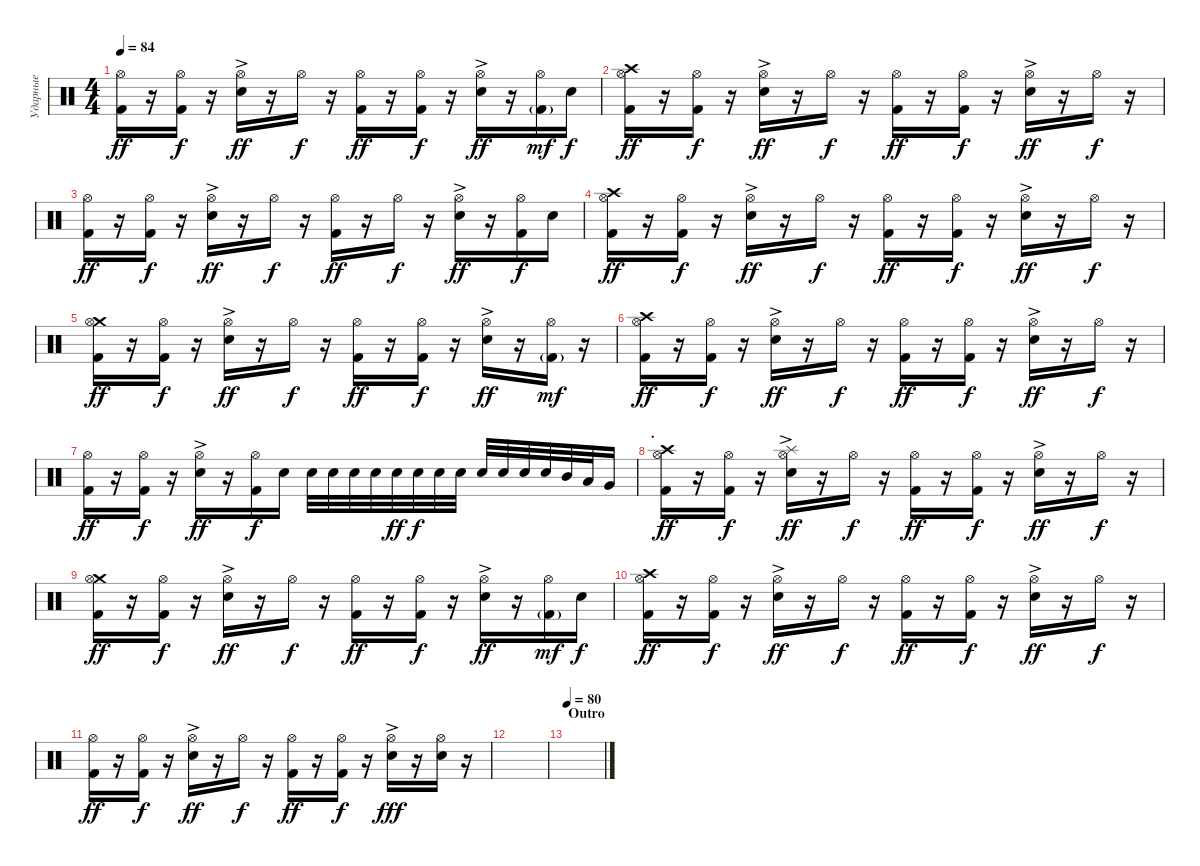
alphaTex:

\track ("Ударные" "Ударные") {instrument percussion}
\staff {score}
\articulation defaults
\ts (4 4)
\tempo 84
\clef neutral
\ks c
("Hi-Hat (open)" "Kick (hit) 2").16{dy ff} r.16 ("Hi-Hat (open)" "Kick (hit) 2").16{dy f} r.16 ("Hi-Hat (open)"{ac} "Electric Snare (hit)").16{dy ff} r.16 "Hi-Hat (open)".16{dy f} r.16 ("Hi-Hat (open)" "Kick (hit) 2").16{dy ff} r.16 ("Hi-Hat (open)" "Kick (hit) 2").16{dy f} r.16 ("Hi-Hat (open)"{ac} "Electric Snare (hit)").16{dy ff} r.16 ("Hi-Hat (open)" "Kick (hit) 2"{g}).16{dy mf} "Electric Snare (hit)".16{dy f} |
("Crash high (hit)" "Hi-Hat (open)" "Kick (hit) 2").16{dy ff} r.16 ("Hi-Hat (open)" "Kick (hit) 2").16{dy f} r.16 ("Hi-Hat (open)"{ac} "Electric Snare (hit)").16{dy ff} r.16 "Hi-Hat (open)".16{dy f} r.16 ("Hi-Hat (open)" "Kick (hit) 2").16{dy ff} r.16 ("Hi-Hat (open)" "Kick (hit) 2").16{dy f} r.16 ("Hi-Hat (open)"{ac} "Electric Snare (hit)").16{dy ff} r.16 "Hi-Hat (open)".16{dy f} r.16 |
("Hi-Hat (open)" "Kick (hit) 2").16{dy ff} r.16 ("Hi-Hat (open)" "Kick (hit) 2").16{dy f} r.16 ("Hi-Hat (open)"{ac} "Electric Snare (hit)").16{dy ff} r.16 "Hi-Hat (open)".16{dy f} r.16 ("Hi-Hat (open)" "Kick (hit) 2").16{dy ff} r.16 "Hi-Hat (open)".16{dy f} r.16 ("Hi-Hat (open)"{ac} "Electric Snare (hit)").16{dy ff} r.16 ("Hi-Hat (open)" "Kick (hit) 2").16{dy f} "Electric Snare (hit)".16 |
("Crash high (hit)" "Hi-Hat (open)" "Kick (hit) 2").16{dy ff} r.16 ("Hi-Hat (open)" "Kick (hit) 2").16{dy f} r.16 ("Hi-Hat (open)"{ac} "Electric Snare (hit)").16{dy ff} r.16 "Hi-Hat (open)".16{dy f} r.16 ("Hi-Hat (open)" "Kick (hit) 2").16{dy ff} r.16 ("Hi-Hat (open)" "Kick (hit) 2").16{dy f} r.16 ("Hi-Hat (open)"{ac} "Electric Snare (hit)").16{dy ff} r.16 "Hi-Hat (open)".16{dy f} r.16 |
("Crash medium (hit)" "Hi-Hat (open)" "Kick (hit) 2").16{dy ff} r.16 ("Hi-Hat (open)" "Kick (hit) 2").16{dy f} r.16 ("Hi-Hat (open)"{ac} "Electric Snare (hit)").16{dy ff} r.16 "Hi-Hat (open)".16{dy f} r.16 ("Hi-Hat (open)" "Kick (hit) 2").16{dy ff} r.16 ("Hi-Hat (open)" "Kick (hit) 2").16{dy f} r.16 ("Hi-Hat (open)"{ac} "Electric Snare (hit)").16{dy ff} r.16 ("Hi-Hat (open)" "Kick (hit) 2"{g}).16{dy mf} r.16 |
("Crash high (hit)" "Hi-Hat (open)" "Kick (hit) 2").16{dy ff} r.16 ("Hi-Hat (open)" "Kick (hit) 2").16{dy f} r.16 ("Hi-Hat (open)"{ac} "Electric Snare (hit)").16{dy ff} r.16 "Hi-Hat (open)".16{dy f} r.16 ("Hi-Hat (open)" "Kick (hit) 2").16{dy ff} r.16 ("Hi-Hat (open)" "Kick (hit) 2").16{dy f} r.16 ("Hi-Hat (open)"{ac} "Electric Snare (hit)").16{dy ff} r.16 "Hi-Hat (open)".16{dy f} r.16 |
("Hi-Hat (open)" "Kick (hit) 2").16{dy ff} r.16 ("Hi-Hat (open)" "Kick (hit) 2").16{dy f} r.16 ("Hi-Hat (open)"{ac} "Electric Snare (hit)").16{dy ff} r.16 ("Hi-Hat (open)" "Kick (hit) 2").16{dy f} "Electric Snare (hit)".16 "Electric Snare (hit)".32 "Electric Snare (hit)".32 "Electric Snare (hit)".32 "Electric Snare (hit)".32 "Electric Snare (hit)".32{dy ff} "Electric Snare (hit)".32{dy f} "Electric Snare (hit)".32 "Electric Snare (hit)".32 "Electric Snare (hit)".32 "Electric Snare (hit)".32 "Electric Snare (hit)".32 "Electric Snare (hit)".32 "Mid Tom (hit)".32 "Low Tom (hit)".32 "Very Low Tom (hit)".16 |
\section ("" ".")
("Crash high (hit)" "Hi-Hat (open)" "Kick (hit) 2").16{dy ff} r.16 ("Hi-Hat (open)" "Kick (hit) 2").16{dy f} r.16 ("Splash (hit)" "Hi-Hat (open)"{ac} "Electric Snare (hit)").16{dy ff} r.16 "Hi-Hat (open)".16{dy f} r.16 ("Hi-Hat (open)" "Kick (hit) 2").16{dy ff} r.16 ("Hi-Hat (open)" "Kick (hit) 2").16{dy f} r.16 ("Hi-Hat (open)"{ac} "Electric Snare (hit)").16{dy ff} r.16 "Hi-Hat (open)".16{dy f} r.16 |
("Crash medium (hit)" "Hi-Hat (open)" "Kick (hit) 2").16{dy ff} r.16 ("Hi-Hat (open)" "Kick (hit) 2").16{dy f} r.16 ("Hi-Hat (open)"{ac} "Electric Snare (hit)").16{dy ff} r.16 "Hi-Hat (open)".16{dy f} r.16 ("Hi-Hat (open)" "Kick (hit) 2").16{dy ff} r.16 ("Hi-Hat (open)" "Kick (hit) 2").16{dy f} r.16 ("Hi-Hat (open)"{ac} "Electric Snare (hit)").16{dy ff} r.16 ("Hi-Hat (open)" "Kick (hit) 2"{g}).16{dy mf} "Electric Snare (hit)".16{dy f} |
("Crash high (hit)" "Hi-Hat (open)" "Kick (hit) 2").16{dy ff} r.16 ("Hi-Hat (open)" "Kick (hit) 2").16{dy f} r.16 ("Hi-Hat (open)"{ac} "Electric Snare (hit)").16{dy ff} r.16 "Hi-Hat (open)".16{dy f} r.16 ("Hi-Hat (open)" "Kick (hit) 2").16{dy ff} r.16 ("Hi-Hat (open)" "Kick (hit) 2").16{dy f} r.16 ("Hi-Hat (open)"{ac} "Electric Snare (hit)").16{dy ff} r.16 "Hi-Hat (open)".16{dy f} r.16 |
("Hi-Hat (open)" "Kick (hit) 2").16{dy ff} r.16 ("Hi-Hat (open)" "Kick (hit) 2").16{dy f} r.16 ("Hi-Hat (open)"{ac} "Electric Snare (hit)").16{dy ff} r.16 "Hi-Hat (open)".16{dy f} r.16 ("Hi-Hat (open)" "Kick (hit) 2").16{dy ff} r.16 ("Hi-Hat (open)" "Kick (hit) 2").16{dy f} r.16 ("Hi-Hat (open)"{ac} "Electric Snare (hit)").16{dy fff} r.16 ("Hi-Hat (open)" "Electric Snare (hit)").16 r.16 |
|
\section ("" "Outro")
\tempo 80
